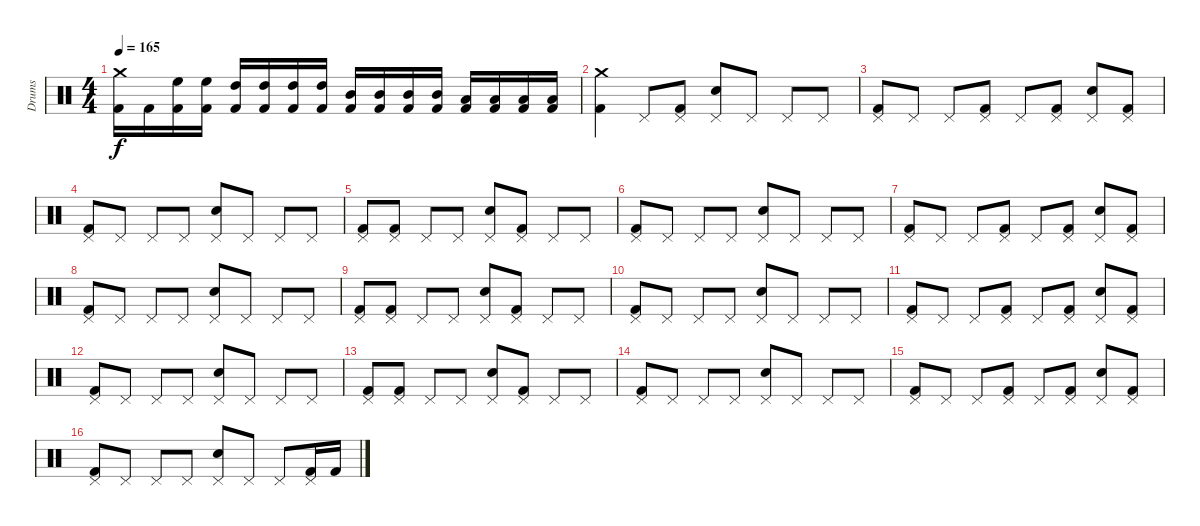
\track ("Drums" "Drums") {instrument percussion}
\staff {score}
\articulation defaults
\ts (4 4)
\tempo 165
\clef neutral
\ks c
("Crash medium (hit)" "Kick (hit) 2").16{dy f} "Kick (hit) 2".16 ("High Floor Tom (hit)" "Kick (hit) 2").16 ("High Floor Tom (hit)" "Kick (hit) 2").16 ("High Tom (hit)" "Kick (hit) 2").16 ("High Tom (hit)" "Kick (hit) 2").16 ("High Tom (hit)" "Kick (hit) 2").16 ("High Tom (hit)" "Kick (hit) 2").16 ("Mid Tom (hit)" "Kick (hit) 2").16 ("Mid Tom (hit)" "Kick (hit) 2").16 ("Mid Tom (hit)" "Kick (hit) 2").16 ("Mid Tom (hit)" "Kick (hit) 2").16 ("Low Tom (hit)" "Kick (hit) 2").16 ("Low Tom (hit)" "Kick (hit) 2").16 ("Low Tom (hit)" "Kick (hit) 2").16 ("Low Tom (hit)" "Kick (hit) 2").16 |
("Crash medium (hit)" "Kick (hit) 2").4 "Pedal Hi-Hat (hit)".8 ("Pedal Hi-Hat (hit)" "Kick (hit) 2").8 ("Pedal Hi-Hat (hit)" "Electric Snare (hit)").8 "Pedal Hi-Hat (hit)".8 "Pedal Hi-Hat (hit)".8 "Pedal Hi-Hat (hit)".8 |
("Pedal Hi-Hat (hit)" "Kick (hit) 2").8 "Pedal Hi-Hat (hit)".8 "Pedal Hi-Hat (hit)".8 ("Pedal Hi-Hat (hit)" "Kick (hit) 2").8 "Pedal Hi-Hat (hit)".8 ("Pedal Hi-Hat (hit)" "Kick (hit) 2").8 ("Pedal Hi-Hat (hit)" "Electric Snare (hit)").8 ("Pedal Hi-Hat (hit)" "Kick (hit) 2").8 |
("Pedal Hi-Hat (hit)" "Kick (hit) 2").8 "Pedal Hi-Hat (hit)".8 "Pedal Hi-Hat (hit)".8 "Pedal Hi-Hat (hit)".8 ("Pedal Hi-Hat (hit)" "Electric Snare (hit)").8 "Pedal Hi-Hat (hit)".8 "Pedal Hi-Hat (hit)".8 "Pedal Hi-Hat (hit)".8 |
("Pedal Hi-Hat (hit)" "Kick (hit) 2").8 ("Pedal Hi-Hat (hit)" "Kick (hit) 2").8 "Pedal Hi-Hat (hit)".8 "Pedal Hi-Hat (hit)".8 ("Pedal Hi-Hat (hit)" "Electric Snare (hit)").8 ("Pedal Hi-Hat (hit)" "Kick (hit) 2").8 "Pedal Hi-Hat (hit)".8 "Pedal Hi-Hat (hit)".8 |
("Pedal Hi-Hat (hit)" "Kick (hit) 2").8 "Pedal Hi-Hat (hit)".8 "Pedal Hi-Hat (hit)".8 "Pedal Hi-Hat (hit)".8 ("Pedal Hi-Hat (hit)" "Electric Snare (hit)").8 "Pedal Hi-Hat (hit)".8 "Pedal Hi-Hat (hit)".8 "Pedal Hi-Hat (hit)".8 |
("Pedal Hi-Hat (hit)" "Kick (hit) 2").8 "Pedal Hi-Hat (hit)".8 "Pedal Hi-Hat (hit)".8 ("Pedal Hi-Hat (hit)" "Kick (hit) 2").8 "Pedal Hi-Hat (hit)".8 ("Pedal Hi-Hat (hit)" "Kick (hit) 2").8 ("Pedal Hi-Hat (hit)" "Electric Snare (hit)").8 ("Pedal Hi-Hat (hit)" "Kick (hit) 2").8 |
("Pedal Hi-Hat (hit)" "Kick (hit) 2").8 "Pedal Hi-Hat (hit)".8 "Pedal Hi-Hat (hit)".8 "Pedal Hi-Hat (hit)".8 ("Pedal Hi-Hat (hit)" "Electric Snare (hit)").8 "Pedal Hi-Hat (hit)".8 "Pedal Hi-Hat (hit)".8 "Pedal Hi-Hat (hit)".8 |
("Pedal Hi-Hat (hit)" "Kick (hit) 2").8 ("Pedal Hi-Hat (hit)" "Kick (hit) 2").8 "Pedal Hi-Hat (hit)".8 "Pedal Hi-Hat (hit)".8 ("Pedal Hi-Hat (hit)" "Electric Snare (hit)").8 ("Pedal Hi-Hat (hit)" "Kick (hit) 2").8 "Pedal Hi-Hat (hit)".8 "Pedal Hi-Hat (hit)".8 |
("Pedal Hi-Hat (hit)" "Kick (hit) 2").8 "Pedal Hi-Hat (hit)".8 "Pedal Hi-Hat (hit)".8 "Pedal Hi-Hat (hit)".8 ("Pedal Hi-Hat (hit)" "Electric Snare (hit)").8 "Pedal Hi-Hat (hit)".8 "Pedal Hi-Hat (hit)".8 "Pedal Hi-Hat (hit)".8 |
("Pedal Hi-Hat (hit)" "Kick (hit) 2").8 "Pedal Hi-Hat (hit)".8 "Pedal Hi-Hat (hit)".8 ("Pedal Hi-Hat (hit)" "Kick (hit) 2").8 "Pedal Hi-Hat (hit)".8 ("Pedal Hi-Hat (hit)" "Kick (hit) 2").8 ("Pedal Hi-Hat (hit)" "Electric Snare (hit)").8 ("Pedal Hi-Hat (hit)" "Kick (hit) 2").8 |
("Pedal Hi-Hat (hit)" "Kick (hit) 2").8 "Pedal Hi-Hat (hit)".8 "Pedal Hi-Hat (hit)".8 "Pedal Hi-Hat (hit)".8 ("Pedal Hi-Hat (hit)" "Electric Snare (hit)").8 "Pedal Hi-Hat (hit)".8 "Pedal Hi-Hat (hit)".8 "Pedal Hi-Hat (hit)".8 |
("Pedal Hi-Hat (hit)" "Kick (hit) 2").8 ("Pedal Hi-Hat (hit)" "Kick (hit) 2").8 "Pedal Hi-Hat (hit)".8 "Pedal Hi-Hat (hit)".8 ("Pedal Hi-Hat (hit)" "Electric Snare (hit)").8 ("Pedal Hi-Hat (hit)" "Kick (hit) 2").8 "Pedal Hi-Hat (hit)".8 "Pedal Hi-Hat (hit)".8 |
("Pedal Hi-Hat (hit)" "Kick (hit) 2").8 "Pedal Hi-Hat (hit)".8 "Pedal Hi-Hat (hit)".8 "Pedal Hi-Hat (hit)".8 ("Pedal Hi-Hat (hit)" "Electric Snare (hit)").8 "Pedal Hi-Hat (hit)".8 "Pedal Hi-Hat (hit)".8 "Pedal Hi-Hat (hit)".8 |
("Pedal Hi-Hat (hit)" "Kick (hit) 2").8 "Pedal Hi-Hat (hit)".8 "Pedal Hi-Hat (hit)".8 ("Pedal Hi-Hat (hit)" "Kick (hit) 2").8 "Pedal Hi-Hat (hit)".8 ("Pedal Hi-Hat (hit)" "Kick (hit) 2").8 ("Pedal Hi-Hat (hit)" "Electric Snare (hit)").8 ("Pedal Hi-Hat (hit)" "Kick (hit) 2").8 |
("Pedal Hi-Hat (hit)" "Kick (hit) 2").8 "Pedal Hi-Hat (hit)".8 "Pedal Hi-Hat (hit)".8 "Pedal Hi-Hat (hit)".8 ("Pedal Hi-Hat (hit)" "Electric Snare (hit)").8 "Pedal Hi-Hat (hit)".8 "Pedal Hi-Hat (hit)".8 ("Pedal Hi-Hat (hit)" "Kick (hit) 2").16 "Kick (hit) 2".16
